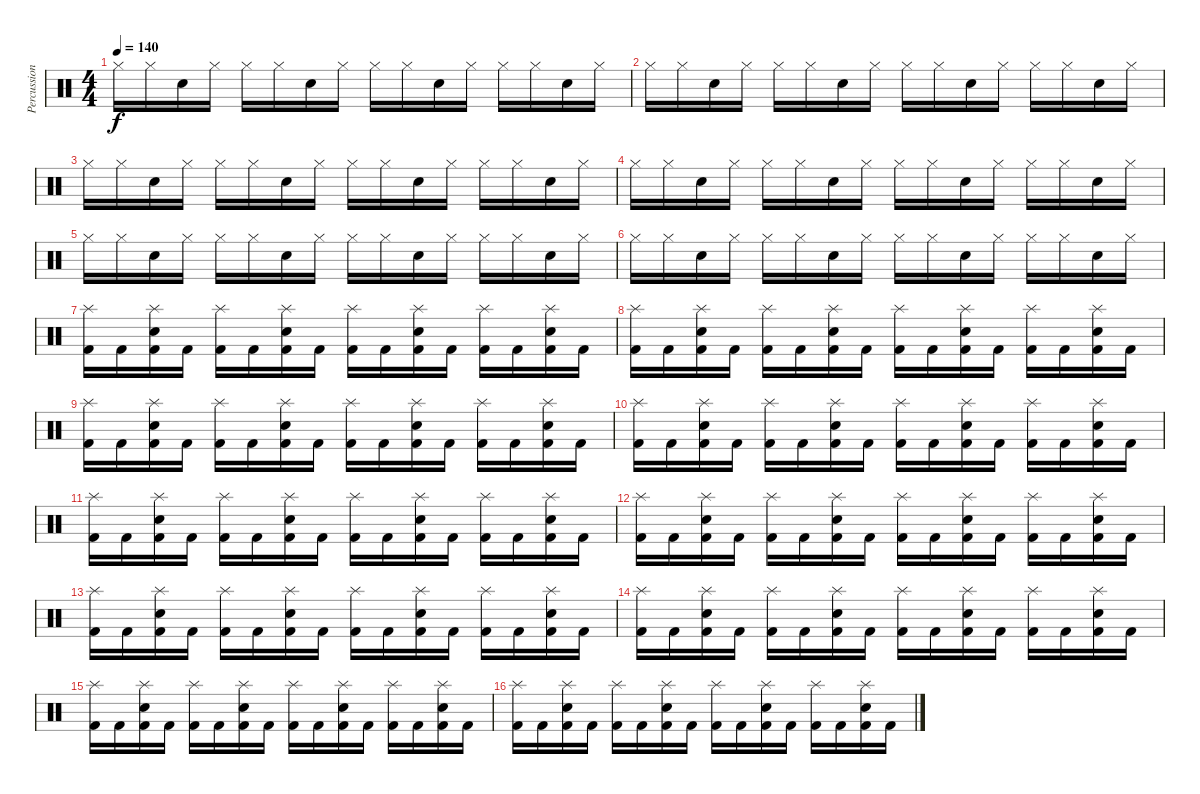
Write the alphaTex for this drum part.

\track ("Percussion" "Percussion") {instrument percussion}
\staff {score}
\articulation defaults
\ts (4 4)
\tempo 140
\clef neutral
\ks c "Hi-Hat (closed)".16{dy f} "Hi-Hat (closed)".16 "Electric Snare (hit)".16 "Hi-Hat (closed)".16 "Hi-Hat (closed)".16 "Hi-Hat (closed)".16 "Electric Snare (hit)".16 "Hi-Hat (closed)".16 "Hi-Hat (closed)".16 "Hi-Hat (closed)".16 "Electric Snare (hit)".16 "Hi-Hat (closed)".16 "Hi-Hat (closed)".16 "Hi-Hat (closed)".16 "Electric Snare (hit)".16 "Hi-Hat (closed)".16
|
"Hi-Hat (closed)".16 "Hi-Hat (closed)".16 "Electric Snare (hit)".16 "Hi-Hat (closed)".16 "Hi-Hat (closed)".16 "Hi-Hat (closed)".16 "Electric Snare (hit)".16 "Hi-Hat (closed)".16 "Hi-Hat (closed)".16 "Hi-Hat (closed)".16 "Electric Snare (hit)".16 "Hi-Hat (closed)".16 "Hi-Hat (closed)".16 "Hi-Hat (closed)".16 "Electric Snare (hit)".16 "Hi-Hat (closed)".16 |
"Hi-Hat (closed)".16 "Hi-Hat (closed)".16 "Electric Snare (hit)".16 "Hi-Hat (closed)".16 "Hi-Hat (closed)".16 "Hi-Hat (closed)".16 "Electric Snare (hit)".16 "Hi-Hat (closed)".16 "Hi-Hat (closed)".16 "Hi-Hat (closed)".16 "Electric Snare (hit)".16 "Hi-Hat (closed)".16 "Hi-Hat (closed)".16 "Hi-Hat (closed)".16 "Electric Snare (hit)".16 "Hi-Hat (closed)".16 |
"Hi-Hat (closed)".16 "Hi-Hat (closed)".16 "Electric Snare (hit)".16 "Hi-Hat (closed)".16 "Hi-Hat (closed)".16 "Hi-Hat (closed)".16 "Electric Snare (hit)".16 "Hi-Hat (closed)".16 "Hi-Hat (closed)".16 "Hi-Hat (closed)".16 "Electric Snare (hit)".16 "Hi-Hat (closed)".16 "Hi-Hat (closed)".16 "Hi-Hat (closed)".16 "Electric Snare (hit)".16 "Hi-Hat (closed)".16 |
"Hi-Hat (closed)".16 "Hi-Hat (closed)".16 "Electric Snare (hit)".16 "Hi-Hat (closed)".16 "Hi-Hat (closed)".16 "Hi-Hat (closed)".16 "Electric Snare (hit)".16 "Hi-Hat (closed)".16 "Hi-Hat (closed)".16 "Hi-Hat (closed)".16 "Electric Snare (hit)".16 "Hi-Hat (closed)".16 "Hi-Hat (closed)".16 "Hi-Hat (closed)".16 "Electric Snare (hit)".16 "Hi-Hat (closed)".16 |
"Hi-Hat (closed)".16 "Hi-Hat (closed)".16 "Electric Snare (hit)".16 "Hi-Hat (closed)".16 "Hi-Hat (closed)".16 "Hi-Hat (closed)".16 "Electric Snare (hit)".16 "Hi-Hat (closed)".16 "Hi-Hat (closed)".16 "Hi-Hat (closed)".16 "Electric Snare (hit)".16 "Hi-Hat (closed)".16 "Hi-Hat (closed)".16 "Hi-Hat (closed)".16 "Electric Snare (hit)".16 "Hi-Hat (closed)".16 |
("Splash (hit)" "Kick (hit) 2").16 "Kick (hit) 2".16 ("Splash (hit)" "Kick (hit) 2" "Electric Snare (hit)").16 "Kick (hit) 2".16 ("Splash (hit)" "Kick (hit) 2").16 "Kick (hit) 2".16 ("Splash (hit)" "Kick (hit) 2" "Electric Snare (hit)").16 "Kick (hit) 2".16 ("Splash (hit)" "Kick (hit) 2").16 "Kick (hit) 2".16 ("Splash (hit)" "Kick (hit) 2" "Electric Snare (hit)").16 "Kick (hit) 2".16 ("Splash (hit)" "Kick (hit) 2").16 "Kick (hit) 2".16 ("Splash (hit)" "Kick (hit) 2" "Electric Snare (hit)").16 "Kick (hit) 2".16 |
("Splash (hit)" "Kick (hit) 2").16 "Kick (hit) 2".16 ("Splash (hit)" "Kick (hit) 2" "Electric Snare (hit)").16 "Kick (hit) 2".16 ("Splash (hit)" "Kick (hit) 2").16 "Kick (hit) 2".16 ("Splash (hit)" "Kick (hit) 2" "Electric Snare (hit)").16 "Kick (hit) 2".16 ("Splash (hit)" "Kick (hit) 2").16 "Kick (hit) 2".16 ("Splash (hit)" "Kick (hit) 2" "Electric Snare (hit)").16 "Kick (hit) 2".16 ("Splash (hit)" "Kick (hit) 2").16 "Kick (hit) 2".16 ("Splash (hit)" "Kick (hit) 2" "Electric Snare (hit)").16 "Kick (hit) 2".16 |
("Splash (hit)" "Kick (hit) 2").16 "Kick (hit) 2".16 ("Splash (hit)" "Kick (hit) 2" "Electric Snare (hit)").16 "Kick (hit) 2".16 ("Splash (hit)" "Kick (hit) 2").16 "Kick (hit) 2".16 ("Splash (hit)" "Kick (hit) 2" "Electric Snare (hit)").16 "Kick (hit) 2".16 ("Splash (hit)" "Kick (hit) 2").16 "Kick (hit) 2".16 ("Splash (hit)" "Kick (hit) 2" "Electric Snare (hit)").16 "Kick (hit) 2".16 ("Splash (hit)" "Kick (hit) 2").16 "Kick (hit) 2".16 ("Splash (hit)" "Kick (hit) 2" "Electric Snare (hit)").16 "Kick (hit) 2".16 |
("Splash (hit)" "Kick (hit) 2").16 "Kick (hit) 2".16 ("Splash (hit)" "Kick (hit) 2" "Electric Snare (hit)").16 "Kick (hit) 2".16 ("Splash (hit)" "Kick (hit) 2").16 "Kick (hit) 2".16 ("Splash (hit)" "Kick (hit) 2" "Electric Snare (hit)").16 "Kick (hit) 2".16 ("Splash (hit)" "Kick (hit) 2").16 "Kick (hit) 2".16 ("Splash (hit)" "Kick (hit) 2" "Electric Snare (hit)").16 "Kick (hit) 2".16 ("Splash (hit)" "Kick (hit) 2").16 "Kick (hit) 2".16 ("Splash (hit)" "Kick (hit) 2" "Electric Snare (hit)").16 "Kick (hit) 2".16 |
("Splash (hit)" "Kick (hit) 2").16 "Kick (hit) 2".16 ("Splash (hit)" "Kick (hit) 2" "Electric Snare (hit)").16 "Kick (hit) 2".16 ("Splash (hit)" "Kick (hit) 2").16 "Kick (hit) 2".16 ("Splash (hit)" "Kick (hit) 2" "Electric Snare (hit)").16 "Kick (hit) 2".16 ("Splash (hit)" "Kick (hit) 2").16 "Kick (hit) 2".16 ("Splash (hit)" "Kick (hit) 2" "Electric Snare (hit)").16 "Kick (hit) 2".16 ("Splash (hit)" "Kick (hit) 2").16 "Kick (hit) 2".16 ("Splash (hit)" "Kick (hit) 2" "Electric Snare (hit)").16 "Kick (hit) 2".16 |
("Splash (hit)" "Kick (hit) 2").16 "Kick (hit) 2".16 ("Splash (hit)" "Kick (hit) 2" "Electric Snare (hit)").16 "Kick (hit) 2".16 ("Splash (hit)" "Kick (hit) 2").16 "Kick (hit) 2".16 ("Splash (hit)" "Kick (hit) 2" "Electric Snare (hit)").16 "Kick (hit) 2".16 ("Splash (hit)" "Kick (hit) 2").16 "Kick (hit) 2".16 ("Splash (hit)" "Kick (hit) 2" "Electric Snare (hit)").16 "Kick (hit) 2".16 ("Splash (hit)" "Kick (hit) 2").16 "Kick (hit) 2".16 ("Splash (hit)" "Kick (hit) 2" "Electric Snare (hit)").16 "Kick (hit) 2".16 |
("Splash (hit)" "Kick (hit) 2").16 "Kick (hit) 2".16 ("Splash (hit)" "Kick (hit) 2" "Electric Snare (hit)").16 "Kick (hit) 2".16 ("Splash (hit)" "Kick (hit) 2").16 "Kick (hit) 2".16 ("Splash (hit)" "Kick (hit) 2" "Electric Snare (hit)").16 "Kick (hit) 2".16 ("Splash (hit)" "Kick (hit) 2").16 "Kick (hit) 2".16 ("Splash (hit)" "Kick (hit) 2" "Electric Snare (hit)").16 "Kick (hit) 2".16 ("Splash (hit)" "Kick (hit) 2").16 "Kick (hit) 2".16 ("Splash (hit)" "Kick (hit) 2" "Electric Snare (hit)").16 "Kick (hit) 2".16 |
("Splash (hit)" "Kick (hit) 2").16 "Kick (hit) 2".16 ("Splash (hit)" "Kick (hit) 2" "Electric Snare (hit)").16 "Kick (hit) 2".16 ("Splash (hit)" "Kick (hit) 2").16 "Kick (hit) 2".16 ("Splash (hit)" "Kick (hit) 2" "Electric Snare (hit)").16 "Kick (hit) 2".16 ("Splash (hit)" "Kick (hit) 2").16 "Kick (hit) 2".16 ("Splash (hit)" "Kick (hit) 2" "Electric Snare (hit)").16 "Kick (hit) 2".16 ("Splash (hit)" "Kick (hit) 2").16 "Kick (hit) 2".16 ("Splash (hit)" "Kick (hit) 2" "Electric Snare (hit)").16 "Kick (hit) 2".16 |
("Splash (hit)" "Kick (hit) 2").16 "Kick (hit) 2".16 ("Splash (hit)" "Kick (hit) 2" "Electric Snare (hit)").16 "Kick (hit) 2".16 ("Splash (hit)" "Kick (hit) 2").16 "Kick (hit) 2".16 ("Splash (hit)" "Kick (hit) 2" "Electric Snare (hit)").16 "Kick (hit) 2".16 ("Splash (hit)" "Kick (hit) 2").16 "Kick (hit) 2".16 ("Splash (hit)" "Kick (hit) 2" "Electric Snare (hit)").16 "Kick (hit) 2".16 ("Splash (hit)" "Kick (hit) 2").16 "Kick (hit) 2".16 ("Splash (hit)" "Kick (hit) 2" "Electric Snare (hit)").16 "Kick (hit) 2".16 |
("Splash (hit)" "Kick (hit) 2").16 "Kick (hit) 2".16 ("Splash (hit)" "Kick (hit) 2" "Electric Snare (hit)").16 "Kick (hit) 2".16 ("Splash (hit)" "Kick (hit) 2").16 "Kick (hit) 2".16 ("Splash (hit)" "Kick (hit) 2" "Electric Snare (hit)").16 "Kick (hit) 2".16 ("Splash (hit)" "Kick (hit) 2").16 "Kick (hit) 2".16 ("Splash (hit)" "Kick (hit) 2" "Electric Snare (hit)").16 "Kick (hit) 2".16 ("Splash (hit)" "Kick (hit) 2").16 "Kick (hit) 2".16 ("Splash (hit)" "Kick (hit) 2" "Electric Snare (hit)").16 "Kick (hit) 2".16
